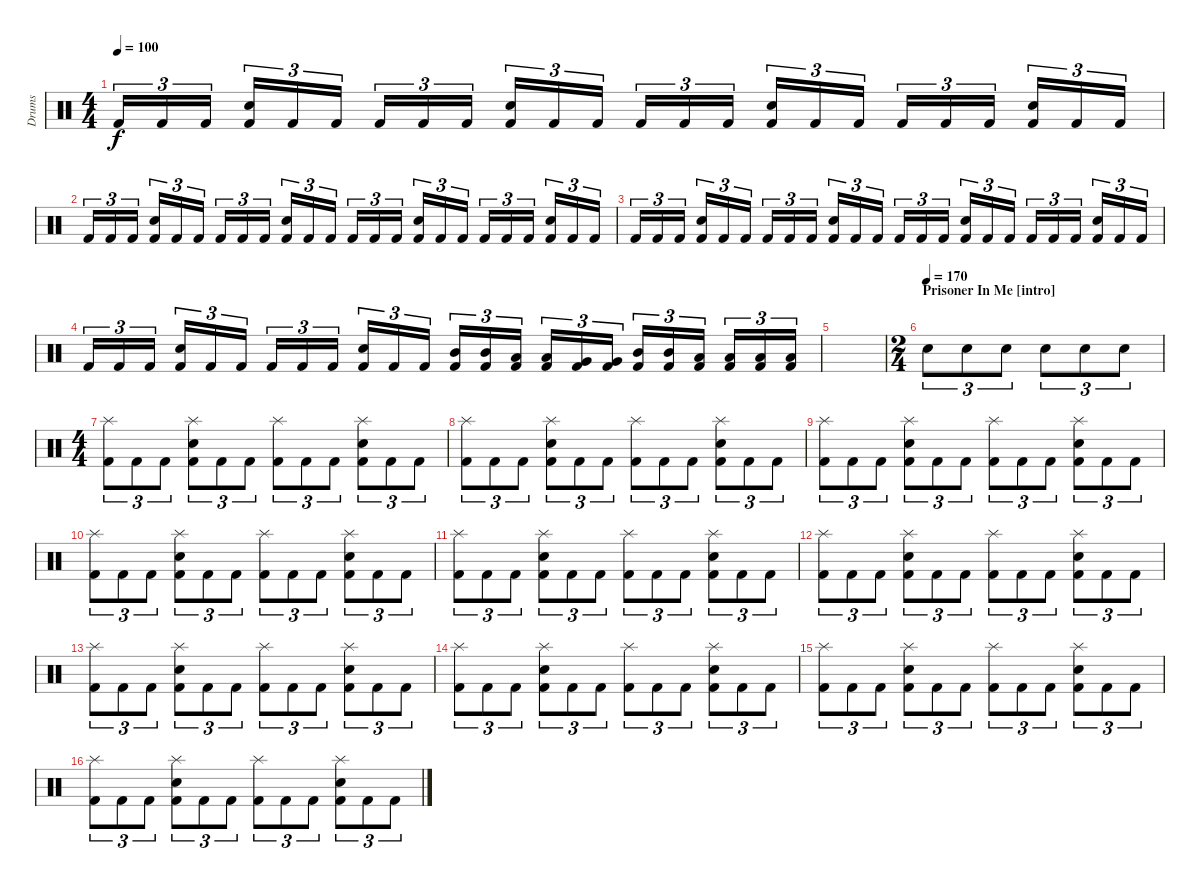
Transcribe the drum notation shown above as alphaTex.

\track ("Drums" "Drums") {instrument percussion}
\staff {score}
\articulation defaults
\ts (4 4)
\tempo 100
\clef neutral
\ks c "Kick (hit) 2".16{tu (3 2) dy f} "Kick (hit) 2".16{tu (3 2)} "Kick (hit) 2".16{tu (3 2)}
("Electric Snare (hit)" "Kick (hit) 2").16{tu (3 2)} "Kick (hit) 2".16{tu (3 2)} "Kick (hit) 2".16{tu (3 2)} "Kick (hit) 2".16{tu (3 2)} "Kick (hit) 2".16{tu (3 2)} "Kick (hit) 2".16{tu (3 2)} ("Electric Snare (hit)" "Kick (hit) 2").16{tu (3 2)} "Kick (hit) 2".16{tu (3 2)} "Kick (hit) 2".16{tu (3 2)} "Kick (hit) 2".16{tu (3 2)} "Kick (hit) 2".16{tu (3 2)} "Kick (hit) 2".16{tu (3 2)} ("Electric Snare (hit)" "Kick (hit) 2").16{tu (3 2)} "Kick (hit) 2".16{tu (3 2)} "Kick (hit) 2".16{tu (3 2)} "Kick (hit) 2".16{tu (3 2)} "Kick (hit) 2".16{tu (3 2)} "Kick (hit) 2".16{tu (3 2)} ("Electric Snare (hit)" "Kick (hit) 2").16{tu (3 2)} "Kick (hit) 2".16{tu (3 2)} "Kick (hit) 2".16{tu (3 2)} |
"Kick (hit) 2".16{tu (3 2)} "Kick (hit) 2".16{tu (3 2)} "Kick (hit) 2".16{tu (3 2)} ("Electric Snare (hit)" "Kick (hit) 2").16{tu (3 2)} "Kick (hit) 2".16{tu (3 2)} "Kick (hit) 2".16{tu (3 2)} "Kick (hit) 2".16{tu (3 2)} "Kick (hit) 2".16{tu (3 2)} "Kick (hit) 2".16{tu (3 2)} ("Electric Snare (hit)" "Kick (hit) 2").16{tu (3 2)} "Kick (hit) 2".16{tu (3 2)} "Kick (hit) 2".16{tu (3 2)} "Kick (hit) 2".16{tu (3 2)} "Kick (hit) 2".16{tu (3 2)} "Kick (hit) 2".16{tu (3 2)} ("Electric Snare (hit)" "Kick (hit) 2").16{tu (3 2)} "Kick (hit) 2".16{tu (3 2)} "Kick (hit) 2".16{tu (3 2)} "Kick (hit) 2".16{tu (3 2)} "Kick (hit) 2".16{tu (3 2)} "Kick (hit) 2".16{tu (3 2)} ("Electric Snare (hit)" "Kick (hit) 2").16{tu (3 2)} "Kick (hit) 2".16{tu (3 2)} "Kick (hit) 2".16{tu (3 2)} |
"Kick (hit) 2".16{tu (3 2)} "Kick (hit) 2".16{tu (3 2)} "Kick (hit) 2".16{tu (3 2)} ("Electric Snare (hit)" "Kick (hit) 2").16{tu (3 2)} "Kick (hit) 2".16{tu (3 2)} "Kick (hit) 2".16{tu (3 2)} "Kick (hit) 2".16{tu (3 2)} "Kick (hit) 2".16{tu (3 2)} "Kick (hit) 2".16{tu (3 2)} ("Electric Snare (hit)" "Kick (hit) 2").16{tu (3 2)} "Kick (hit) 2".16{tu (3 2)} "Kick (hit) 2".16{tu (3 2)} "Kick (hit) 2".16{tu (3 2)} "Kick (hit) 2".16{tu (3 2)} "Kick (hit) 2".16{tu (3 2)} ("Electric Snare (hit)" "Kick (hit) 2").16{tu (3 2)} "Kick (hit) 2".16{tu (3 2)} "Kick (hit) 2".16{tu (3 2)} "Kick (hit) 2".16{tu (3 2)} "Kick (hit) 2".16{tu (3 2)} "Kick (hit) 2".16{tu (3 2)} ("Electric Snare (hit)" "Kick (hit) 2").16{tu (3 2)} "Kick (hit) 2".16{tu (3 2)} "Kick (hit) 2".16{tu (3 2)} |
"Kick (hit) 2".16{tu (3 2)} "Kick (hit) 2".16{tu (3 2)} "Kick (hit) 2".16{tu (3 2)} ("Electric Snare (hit)" "Kick (hit) 2").16{tu (3 2)} "Kick (hit) 2".16{tu (3 2)} "Kick (hit) 2".16{tu (3 2)} "Kick (hit) 2".16{tu (3 2)} "Kick (hit) 2".16{tu (3 2)} "Kick (hit) 2".16{tu (3 2)} ("Electric Snare (hit)" "Kick (hit) 2").16{tu (3 2)} "Kick (hit) 2".16{tu (3 2)} "Kick (hit) 2".16{tu (3 2)} ("Mid Tom (hit)" "Kick (hit) 2").16{tu (3 2)} ("Mid Tom (hit)" "Kick (hit) 2").16{tu (3 2)} ("Low Tom (hit)" "Kick (hit) 2").16{tu (3 2)} ("Low Tom (hit)" "Kick (hit) 2").16{tu (3 2)} ("Very Low Tom (hit)" "Kick (hit) 2").16{tu (3 2)} ("Very Low Tom (hit)" "Kick (hit) 2").16{tu (3 2)} ("Mid Tom (hit)" "Kick (hit) 2").16{tu (3 2)} ("Mid Tom (hit)" "Kick (hit) 2").16{tu (3 2)} ("Low Tom (hit)" "Kick (hit) 2").16{tu (3 2)} ("Low Tom (hit)" "Kick (hit) 2").16{tu (3 2)} ("Low Floor Tom (hit)" "Kick (hit) 2").16{tu (3 2)} ("Low Floor Tom (hit)" "Kick (hit) 2").16{tu (3 2)} |
|
\ts (2 4)
\section ("" "Prisoner In Me [intro]")
\tempo (170)
"Electric Snare (hit)".8{tu (3 2)} "Electric Snare (hit)".8{tu (3 2)} "Electric Snare (hit)".8{tu (3 2)} "Electric Snare (hit)".8{tu (3 2)} "Electric Snare (hit)".8{tu (3 2)} "Electric Snare (hit)".8{tu (3 2)} |
\ts (4 4)
("Splash (hit)" "Kick (hit) 2").8{tu (3 2)} "Kick (hit) 2".8{tu (3 2)} "Kick (hit) 2".8{tu (3 2)} ("Splash (hit)" "Electric Snare (hit)" "Kick (hit) 2").8{tu (3 2)} "Kick (hit) 2".8{tu (3 2)} "Kick (hit) 2".8{tu (3 2)} ("Splash (hit)" "Kick (hit) 2").8{tu (3 2)} "Kick (hit) 2".8{tu (3 2)} "Kick (hit) 2".8{tu (3 2)} ("Splash (hit)" "Electric Snare (hit)" "Kick (hit) 2").8{tu (3 2)} "Kick (hit) 2".8{tu (3 2)} "Kick (hit) 2".8{tu (3 2)} |
("Splash (hit)" "Kick (hit) 2").8{tu (3 2)} "Kick (hit) 2".8{tu (3 2)} "Kick (hit) 2".8{tu (3 2)} ("Splash (hit)" "Electric Snare (hit)" "Kick (hit) 2").8{tu (3 2)} "Kick (hit) 2".8{tu (3 2)} "Kick (hit) 2".8{tu (3 2)} ("Splash (hit)" "Kick (hit) 2").8{tu (3 2)} "Kick (hit) 2".8{tu (3 2)} "Kick (hit) 2".8{tu (3 2)} ("Splash (hit)" "Electric Snare (hit)" "Kick (hit) 2").8{tu (3 2)} "Kick (hit) 2".8{tu (3 2)} "Kick (hit) 2".8{tu (3 2)} |
("Splash (hit)" "Kick (hit) 2").8{tu (3 2)} "Kick (hit) 2".8{tu (3 2)} "Kick (hit) 2".8{tu (3 2)} ("Splash (hit)" "Electric Snare (hit)" "Kick (hit) 2").8{tu (3 2)} "Kick (hit) 2".8{tu (3 2)} "Kick (hit) 2".8{tu (3 2)} ("Splash (hit)" "Kick (hit) 2").8{tu (3 2)} "Kick (hit) 2".8{tu (3 2)} "Kick (hit) 2".8{tu (3 2)} ("Splash (hit)" "Electric Snare (hit)" "Kick (hit) 2").8{tu (3 2)} "Kick (hit) 2".8{tu (3 2)} "Kick (hit) 2".8{tu (3 2)} |
("Splash (hit)" "Kick (hit) 2").8{tu (3 2)} "Kick (hit) 2".8{tu (3 2)} "Kick (hit) 2".8{tu (3 2)} ("Splash (hit)" "Electric Snare (hit)" "Kick (hit) 2").8{tu (3 2)} "Kick (hit) 2".8{tu (3 2)} "Kick (hit) 2".8{tu (3 2)} ("Splash (hit)" "Kick (hit) 2").8{tu (3 2)} "Kick (hit) 2".8{tu (3 2)} "Kick (hit) 2".8{tu (3 2)} ("Splash (hit)" "Electric Snare (hit)" "Kick (hit) 2").8{tu (3 2)} "Kick (hit) 2".8{tu (3 2)} "Kick (hit) 2".8{tu (3 2)} |
("Splash (hit)" "Kick (hit) 2").8{tu (3 2)} "Kick (hit) 2".8{tu (3 2)} "Kick (hit) 2".8{tu (3 2)} ("Splash (hit)" "Electric Snare (hit)" "Kick (hit) 2").8{tu (3 2)} "Kick (hit) 2".8{tu (3 2)} "Kick (hit) 2".8{tu (3 2)} ("Splash (hit)" "Kick (hit) 2").8{tu (3 2)} "Kick (hit) 2".8{tu (3 2)} "Kick (hit) 2".8{tu (3 2)} ("Splash (hit)" "Electric Snare (hit)" "Kick (hit) 2").8{tu (3 2)} "Kick (hit) 2".8{tu (3 2)} "Kick (hit) 2".8{tu (3 2)} |
("Splash (hit)" "Kick (hit) 2").8{tu (3 2)} "Kick (hit) 2".8{tu (3 2)} "Kick (hit) 2".8{tu (3 2)} ("Splash (hit)" "Electric Snare (hit)" "Kick (hit) 2").8{tu (3 2)} "Kick (hit) 2".8{tu (3 2)} "Kick (hit) 2".8{tu (3 2)} ("Splash (hit)" "Kick (hit) 2").8{tu (3 2)} "Kick (hit) 2".8{tu (3 2)} "Kick (hit) 2".8{tu (3 2)} ("Splash (hit)" "Electric Snare (hit)" "Kick (hit) 2").8{tu (3 2)} "Kick (hit) 2".8{tu (3 2)} "Kick (hit) 2".8{tu (3 2)} |
("Splash (hit)" "Kick (hit) 2").8{tu (3 2)} "Kick (hit) 2".8{tu (3 2)} "Kick (hit) 2".8{tu (3 2)} ("Splash (hit)" "Electric Snare (hit)" "Kick (hit) 2").8{tu (3 2)} "Kick (hit) 2".8{tu (3 2)} "Kick (hit) 2".8{tu (3 2)} ("Splash (hit)" "Kick (hit) 2").8{tu (3 2)} "Kick (hit) 2".8{tu (3 2)} "Kick (hit) 2".8{tu (3 2)} ("Splash (hit)" "Electric Snare (hit)" "Kick (hit) 2").8{tu (3 2)} "Kick (hit) 2".8{tu (3 2)} "Kick (hit) 2".8{tu (3 2)} |
("Splash (hit)" "Kick (hit) 2").8{tu (3 2)} "Kick (hit) 2".8{tu (3 2)} "Kick (hit) 2".8{tu (3 2)} ("Splash (hit)" "Electric Snare (hit)" "Kick (hit) 2").8{tu (3 2)} "Kick (hit) 2".8{tu (3 2)} "Kick (hit) 2".8{tu (3 2)} ("Splash (hit)" "Kick (hit) 2").8{tu (3 2)} "Kick (hit) 2".8{tu (3 2)} "Kick (hit) 2".8{tu (3 2)} ("Splash (hit)" "Electric Snare (hit)" "Kick (hit) 2").8{tu (3 2)} "Kick (hit) 2".8{tu (3 2)} "Kick (hit) 2".8{tu (3 2)} |
("Splash (hit)" "Kick (hit) 2").8{tu (3 2)} "Kick (hit) 2".8{tu (3 2)} "Kick (hit) 2".8{tu (3 2)} ("Splash (hit)" "Electric Snare (hit)" "Kick (hit) 2").8{tu (3 2)} "Kick (hit) 2".8{tu (3 2)} "Kick (hit) 2".8{tu (3 2)} ("Splash (hit)" "Kick (hit) 2").8{tu (3 2)} "Kick (hit) 2".8{tu (3 2)} "Kick (hit) 2".8{tu (3 2)} ("Splash (hit)" "Electric Snare (hit)" "Kick (hit) 2").8{tu (3 2)} "Kick (hit) 2".8{tu (3 2)} "Kick (hit) 2".8{tu (3 2)} |
("Splash (hit)" "Kick (hit) 2").8{tu (3 2)} "Kick (hit) 2".8{tu (3 2)} "Kick (hit) 2".8{tu (3 2)} ("Splash (hit)" "Electric Snare (hit)" "Kick (hit) 2").8{tu (3 2)} "Kick (hit) 2".8{tu (3 2)} "Kick (hit) 2".8{tu (3 2)} ("Splash (hit)" "Kick (hit) 2").8{tu (3 2)} "Kick (hit) 2".8{tu (3 2)} "Kick (hit) 2".8{tu (3 2)} ("Splash (hit)" "Electric Snare (hit)" "Kick (hit) 2").8{tu (3 2)} "Kick (hit) 2".8{tu (3 2)} "Kick (hit) 2".8{tu (3 2)}
